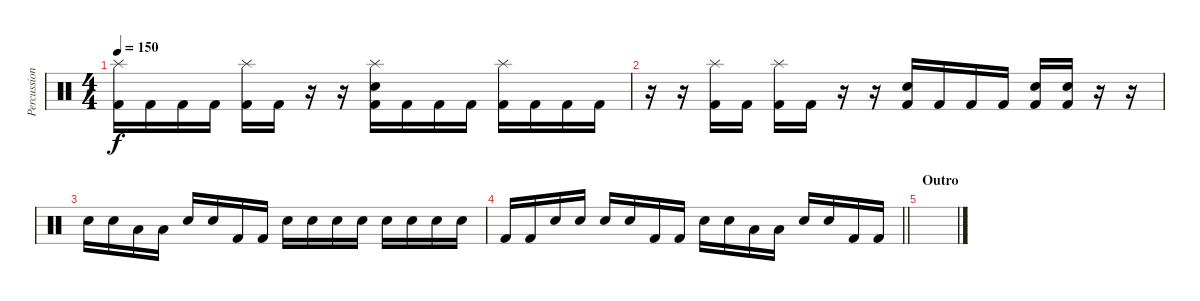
\track ("Percussion" "Percussion") {instrument percussion}
\staff {score}
\articulation defaults
\ts (4 4)
\tempo 150
\clef neutral
\ks c
("Splash (hit)" "Kick (hit) 2").16{dy f} "Kick (hit) 2".16 "Kick (hit) 2".16 "Kick (hit) 2".16 ("Splash (hit)" "Kick (hit) 2").16 "Kick (hit) 2".16 r.16 r.16 ("Splash (hit)" "Electric Snare (hit)" "Kick (hit) 2").16 "Kick (hit) 2".16 "Kick (hit) 2".16 "Kick (hit) 2".16 ("Splash (hit)" "Kick (hit) 2").16 "Kick (hit) 2".16 "Kick (hit) 2".16 "Kick (hit) 2".16 |
r.16 r.16 ("Splash (hit)" "Kick (hit) 2").16 "Kick (hit) 2".16 ("Splash (hit)" "Kick (hit) 2").16 "Kick (hit) 2".16 r.16 r.16 ("Electric Snare (hit)" "Kick (hit) 2").16 "Kick (hit) 2".16 "Kick (hit) 2".16 "Kick (hit) 2".16 ("Electric Snare (hit)" "Kick (hit) 2").16 ("Electric Snare (hit)" "Kick (hit) 2").16 r.16 r.16 |
"Electric Snare (hit)".16 "Electric Snare (hit)".16 "Low Tom (hit)".16 "Low Tom (hit)".16 "Electric Snare (hit)".16 "Electric Snare (hit)".16 "Kick (hit) 2".16 "Kick (hit) 2".16 "Electric Snare (hit)".16 "Electric Snare (hit)".16 "Electric Snare (hit)".16 "Electric Snare (hit)".16 "Electric Snare (hit)".16 "Electric Snare (hit)".16 "Electric Snare (hit)".16 "Electric Snare (hit)".16 |
\barLineRight lightlight "Kick (hit) 2".16 "Kick (hit) 2".16 "Electric Snare (hit)".16 "Electric Snare (hit)".16 "Electric Snare (hit)".16 "Electric Snare (hit)".16 "Kick (hit) 2".16 "Kick (hit) 2".16 "Electric Snare (hit)".16 "Electric Snare (hit)".16 "Low Tom (hit)".16 "Low Tom (hit)".16 "Electric Snare (hit)".16 "Electric Snare (hit)".16 "Kick (hit) 2".16 "Kick (hit) 2".16
|
\section ("" "Outro")
